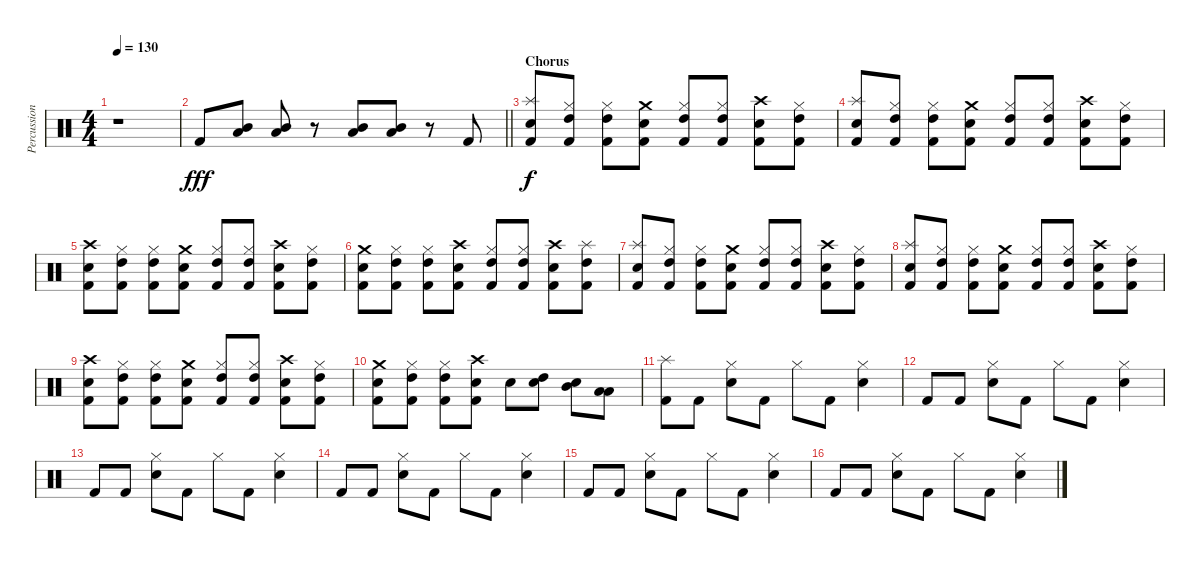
\track ("Percussion" "Percussion") {instrument percussion}
\staff {score}
\articulation defaults
\ts (4 4)
\tempo 130
\clef neutral
\ks c
r.1{dy f} |
\barLineRight lightlight "Kick (hit) 2".8{dy fff}
("Mid Tom (hit)" "Low Tom (hit)").8 ("Mid Tom (hit)" "Low Tom (hit)").8 r.8 ("Mid Tom (hit)" "Low Tom (hit)").8 ("Mid Tom (hit)" "Low Tom (hit)").8 r.8 "Kick (hit) 2".8 |
\section ("" "Chorus")
("Splash (hit)" "Snare (hit) 2" "Kick (hit) 2").8{dy f} ("Hi-Hat (closed)" "High Tom (hit)" "Kick (hit) 2").8 ("Hi-Hat (closed)" "High Tom (hit)" "Kick (hit) 2").8 ("Crash medium (hit)" "Snare (hit) 2" "Kick (hit) 2").8 ("Hi-Hat (closed)" "High Tom (hit)" "Kick (hit) 2").8 ("Hi-Hat (closed)" "High Tom (hit)" "Kick (hit) 2").8 ("Crash high (hit)" "Snare (hit) 2" "Kick (hit) 2").8 ("Hi-Hat (closed)" "High Tom (hit)" "Kick (hit) 2").8 |
("Splash (hit)" "Snare (hit) 2" "Kick (hit) 2").8 ("Hi-Hat (closed)" "High Tom (hit)" "Kick (hit) 2").8 ("Hi-Hat (closed)" "High Tom (hit)" "Kick (hit) 2").8 ("Crash medium (hit)" "Snare (hit) 2" "Kick (hit) 2").8 ("Hi-Hat (closed)" "High Tom (hit)" "Kick (hit) 2").8 ("Hi-Hat (closed)" "High Tom (hit)" "Kick (hit) 2").8 ("Crash high (hit)" "Snare (hit) 2" "Kick (hit) 2").8 ("Hi-Hat (closed)" "High Tom (hit)" "Kick (hit) 2").8 |
("Crash high (hit)" "Snare (hit) 2" "Kick (hit) 2").8 ("Hi-Hat (closed)" "High Tom (hit)" "Kick (hit) 2").8 ("Hi-Hat (closed)" "High Tom (hit)" "Kick (hit) 2").8 ("Crash medium (hit)" "Snare (hit) 2" "Kick (hit) 2").8 ("Hi-Hat (closed)" "High Tom (hit)" "Kick (hit) 2").8 ("Hi-Hat (closed)" "High Tom (hit)" "Kick (hit) 2").8 ("Crash high (hit)" "Snare (hit) 2" "Kick (hit) 2").8 ("Hi-Hat (closed)" "High Tom (hit)" "Kick (hit) 2").8 |
("Crash medium (hit)" "Snare (hit) 2" "Kick (hit) 2").8 ("Hi-Hat (closed)" "High Tom (hit)" "Kick (hit) 2").8 ("Hi-Hat (closed)" "High Tom (hit)" "Kick (hit) 2").8 ("Crash high (hit)" "Snare (hit) 2" "Kick (hit) 2").8 ("Hi-Hat (closed)" "High Tom (hit)" "Kick (hit) 2").8 ("Hi-Hat (closed)" "High Tom (hit)" "Kick (hit) 2").8 ("Crash high (hit)" "Snare (hit) 2" "Kick (hit) 2").8 ("Splash (hit)" "High Tom (hit)" "Kick (hit) 2").8 |
("Splash (hit)" "Snare (hit) 2" "Kick (hit) 2").8 ("Hi-Hat (closed)" "High Tom (hit)" "Kick (hit) 2").8 ("Hi-Hat (closed)" "High Tom (hit)" "Kick (hit) 2").8 ("Crash medium (hit)" "Snare (hit) 2" "Kick (hit) 2").8 ("Hi-Hat (closed)" "High Tom (hit)" "Kick (hit) 2").8 ("Hi-Hat (closed)" "High Tom (hit)" "Kick (hit) 2").8 ("Crash high (hit)" "Snare (hit) 2" "Kick (hit) 2").8 ("Hi-Hat (closed)" "High Tom (hit)" "Kick (hit) 2").8 |
("Splash (hit)" "Snare (hit) 2" "Kick (hit) 2").8 ("Hi-Hat (closed)" "High Tom (hit)" "Kick (hit) 2").8 ("Hi-Hat (closed)" "High Tom (hit)" "Kick (hit) 2").8 ("Crash medium (hit)" "Snare (hit) 2" "Kick (hit) 2").8 ("Hi-Hat (closed)" "High Tom (hit)" "Kick (hit) 2").8 ("Hi-Hat (closed)" "High Tom (hit)" "Kick (hit) 2").8 ("Crash high (hit)" "Snare (hit) 2" "Kick (hit) 2").8 ("Hi-Hat (closed)" "High Tom (hit)" "Kick (hit) 2").8 |
("Crash high (hit)" "Snare (hit) 2" "Kick (hit) 2").8 ("Hi-Hat (closed)" "High Tom (hit)" "Kick (hit) 2").8 ("Hi-Hat (closed)" "High Tom (hit)" "Kick (hit) 2").8 ("Crash medium (hit)" "Snare (hit) 2" "Kick (hit) 2").8 ("Hi-Hat (closed)" "High Tom (hit)" "Kick (hit) 2").8 ("Hi-Hat (closed)" "High Tom (hit)" "Kick (hit) 2").8 ("Crash high (hit)" "Snare (hit) 2" "Kick (hit) 2").8 ("Hi-Hat (closed)" "High Tom (hit)" "Kick (hit) 2").8 |
("Crash medium (hit)" "Snare (hit) 2" "Kick (hit) 2").8 ("Hi-Hat (closed)" "High Tom (hit)" "Kick (hit) 2").8 ("Hi-Hat (closed)" "High Tom (hit)" "Kick (hit) 2").8 ("Crash high (hit)" "Snare (hit) 2" "Kick (hit) 2").8 "Snare (hit) 2".8 ("High Tom (hit)" "Snare (hit) 2").8 ("Mid Tom (hit)" "Snare (hit) 2").8 ("Low Tom (hit)" "Low Floor Tom (hit)").8 |
("Splash (hit)" "Kick (hit) 2").8 "Kick (hit) 2".8 ("Hi-Hat (closed)" "Snare (hit) 2").8 "Kick (hit) 2".8 "Hi-Hat (closed)".8 "Kick (hit) 2".8 ("Hi-Hat (closed)" "Snare (hit) 2").4 |
"Kick (hit) 2".8 "Kick (hit) 2".8 ("Hi-Hat (closed)" "Snare (hit) 2").8 "Kick (hit) 2".8 "Hi-Hat (closed)".8 "Kick (hit) 2".8 ("Hi-Hat (closed)" "Snare (hit) 2").4 |
"Kick (hit) 2".8 "Kick (hit) 2".8 ("Hi-Hat (closed)" "Snare (hit) 2").8 "Kick (hit) 2".8 "Hi-Hat (closed)".8 "Kick (hit) 2".8 ("Hi-Hat (closed)" "Snare (hit) 2").4 |
"Kick (hit) 2".8 "Kick (hit) 2".8 ("Hi-Hat (closed)" "Snare (hit) 2").8 "Kick (hit) 2".8 "Hi-Hat (closed)".8 "Kick (hit) 2".8 ("Hi-Hat (closed)" "Snare (hit) 2").4 |
"Kick (hit) 2".8 "Kick (hit) 2".8 ("Hi-Hat (closed)" "Snare (hit) 2").8 "Kick (hit) 2".8 "Hi-Hat (closed)".8 "Kick (hit) 2".8 ("Hi-Hat (closed)" "Snare (hit) 2").4 |
"Kick (hit) 2".8 "Kick (hit) 2".8 ("Hi-Hat (closed)" "Snare (hit) 2").8 "Kick (hit) 2".8 "Hi-Hat (closed)".8 "Kick (hit) 2".8 ("Hi-Hat (closed)" "Snare (hit) 2").4
